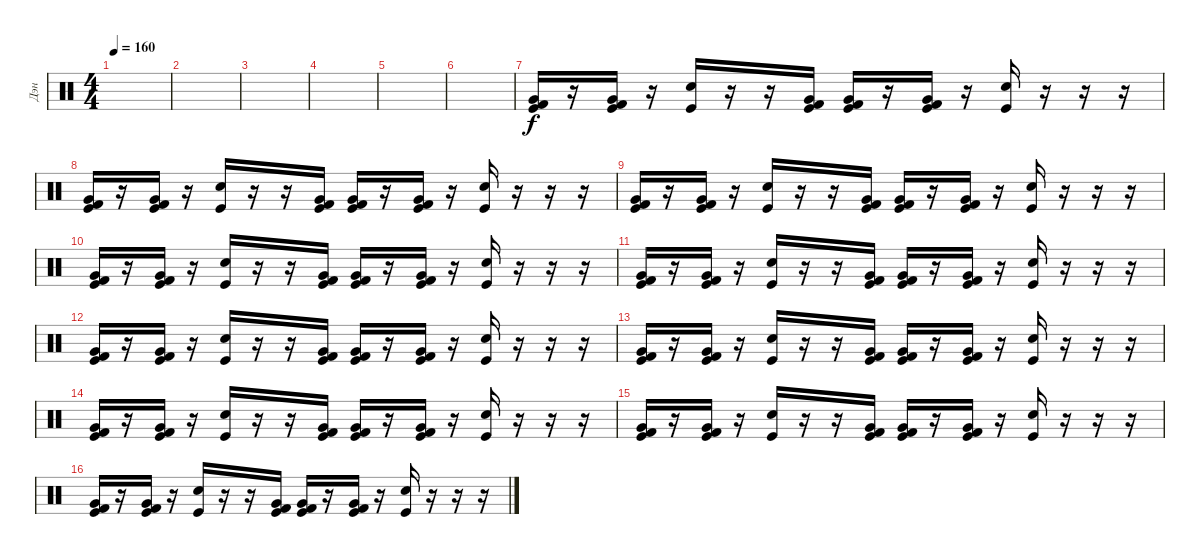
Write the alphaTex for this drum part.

\track ("Дэн" "Дэн") {instrument percussion}
\staff {score}
\articulation defaults
\ts (4 4)
\tempo 160
\clef neutral
\ks c
|
|
|
|
|
|
("Very Low Tom (hit)" "Kick (hit) 2" "Kick (hit)").16 r.16 ("Very Low Tom (hit)" "Kick (hit) 2" "Kick (hit)").16 r.16 ("Electric Snare (hit)" "Kick (hit)").16 r.16 r.16 ("Very Low Tom (hit)" "Kick (hit) 2" "Kick (hit)").16 ("Very Low Tom (hit)" "Kick (hit) 2" "Kick (hit)").16 r.16 ("Very Low Tom (hit)" "Kick (hit) 2" "Kick (hit)").16 r.16 ("Electric Snare (hit)" "Kick (hit)").16 r.16 r.16 r.16 |
("Very Low Tom (hit)" "Kick (hit) 2" "Kick (hit)").16 r.16 ("Very Low Tom (hit)" "Kick (hit) 2" "Kick (hit)").16 r.16 ("Electric Snare (hit)" "Kick (hit)").16 r.16 r.16 ("Very Low Tom (hit)" "Kick (hit) 2" "Kick (hit)").16 ("Very Low Tom (hit)" "Kick (hit) 2" "Kick (hit)").16 r.16 ("Very Low Tom (hit)" "Kick (hit) 2" "Kick (hit)").16 r.16 ("Electric Snare (hit)" "Kick (hit)").16 r.16 r.16 r.16 |
("Very Low Tom (hit)" "Kick (hit) 2" "Kick (hit)").16 r.16 ("Very Low Tom (hit)" "Kick (hit) 2" "Kick (hit)").16 r.16 ("Electric Snare (hit)" "Kick (hit)").16 r.16 r.16 ("Very Low Tom (hit)" "Kick (hit) 2" "Kick (hit)").16 ("Very Low Tom (hit)" "Kick (hit) 2" "Kick (hit)").16 r.16 ("Very Low Tom (hit)" "Kick (hit) 2" "Kick (hit)").16 r.16 ("Electric Snare (hit)" "Kick (hit)").16 r.16 r.16 r.16 |
("Very Low Tom (hit)" "Kick (hit) 2" "Kick (hit)").16 r.16 ("Very Low Tom (hit)" "Kick (hit) 2" "Kick (hit)").16 r.16 ("Electric Snare (hit)" "Kick (hit)").16 r.16 r.16 ("Very Low Tom (hit)" "Kick (hit) 2" "Kick (hit)").16 ("Very Low Tom (hit)" "Kick (hit) 2" "Kick (hit)").16 r.16 ("Very Low Tom (hit)" "Kick (hit) 2" "Kick (hit)").16 r.16 ("Electric Snare (hit)" "Kick (hit)").16 r.16 r.16 r.16 |
("Very Low Tom (hit)" "Kick (hit) 2" "Kick (hit)").16 r.16 ("Very Low Tom (hit)" "Kick (hit) 2" "Kick (hit)").16 r.16 ("Electric Snare (hit)" "Kick (hit)").16 r.16 r.16 ("Very Low Tom (hit)" "Kick (hit) 2" "Kick (hit)").16 ("Very Low Tom (hit)" "Kick (hit) 2" "Kick (hit)").16 r.16 ("Very Low Tom (hit)" "Kick (hit) 2" "Kick (hit)").16 r.16 ("Electric Snare (hit)" "Kick (hit)").16 r.16 r.16 r.16 |
("Very Low Tom (hit)" "Kick (hit) 2" "Kick (hit)").16 r.16 ("Very Low Tom (hit)" "Kick (hit) 2" "Kick (hit)").16 r.16 ("Electric Snare (hit)" "Kick (hit)").16 r.16 r.16 ("Very Low Tom (hit)" "Kick (hit) 2" "Kick (hit)").16 ("Very Low Tom (hit)" "Kick (hit) 2" "Kick (hit)").16 r.16 ("Very Low Tom (hit)" "Kick (hit) 2" "Kick (hit)").16 r.16 ("Electric Snare (hit)" "Kick (hit)").16 r.16 r.16 r.16 |
("Very Low Tom (hit)" "Kick (hit) 2" "Kick (hit)").16 r.16 ("Very Low Tom (hit)" "Kick (hit) 2" "Kick (hit)").16 r.16 ("Electric Snare (hit)" "Kick (hit)").16 r.16 r.16 ("Very Low Tom (hit)" "Kick (hit) 2" "Kick (hit)").16 ("Very Low Tom (hit)" "Kick (hit) 2" "Kick (hit)").16 r.16 ("Very Low Tom (hit)" "Kick (hit) 2" "Kick (hit)").16 r.16 ("Electric Snare (hit)" "Kick (hit)").16 r.16 r.16 r.16 |
("Very Low Tom (hit)" "Kick (hit) 2" "Kick (hit)").16 r.16 ("Very Low Tom (hit)" "Kick (hit) 2" "Kick (hit)").16 r.16 ("Electric Snare (hit)" "Kick (hit)").16 r.16 r.16 ("Very Low Tom (hit)" "Kick (hit) 2" "Kick (hit)").16 ("Very Low Tom (hit)" "Kick (hit) 2" "Kick (hit)").16 r.16 ("Very Low Tom (hit)" "Kick (hit) 2" "Kick (hit)").16 r.16 ("Electric Snare (hit)" "Kick (hit)").16 r.16 r.16 r.16 |
("Very Low Tom (hit)" "Kick (hit) 2" "Kick (hit)").16 r.16 ("Very Low Tom (hit)" "Kick (hit) 2" "Kick (hit)").16 r.16 ("Electric Snare (hit)" "Kick (hit)").16 r.16 r.16 ("Very Low Tom (hit)" "Kick (hit) 2" "Kick (hit)").16 ("Very Low Tom (hit)" "Kick (hit) 2" "Kick (hit)").16 r.16 ("Very Low Tom (hit)" "Kick (hit) 2" "Kick (hit)").16 r.16 ("Electric Snare (hit)" "Kick (hit)").16 r.16 r.16 r.16 |
("Very Low Tom (hit)" "Kick (hit) 2" "Kick (hit)").16 r.16 ("Very Low Tom (hit)" "Kick (hit) 2" "Kick (hit)").16 r.16 ("Electric Snare (hit)" "Kick (hit)").16 r.16 r.16 ("Very Low Tom (hit)" "Kick (hit) 2" "Kick (hit)").16 ("Very Low Tom (hit)" "Kick (hit) 2" "Kick (hit)").16 r.16 ("Very Low Tom (hit)" "Kick (hit) 2" "Kick (hit)").16 r.16 ("Electric Snare (hit)" "Kick (hit)").16 r.16 r.16 r.16
